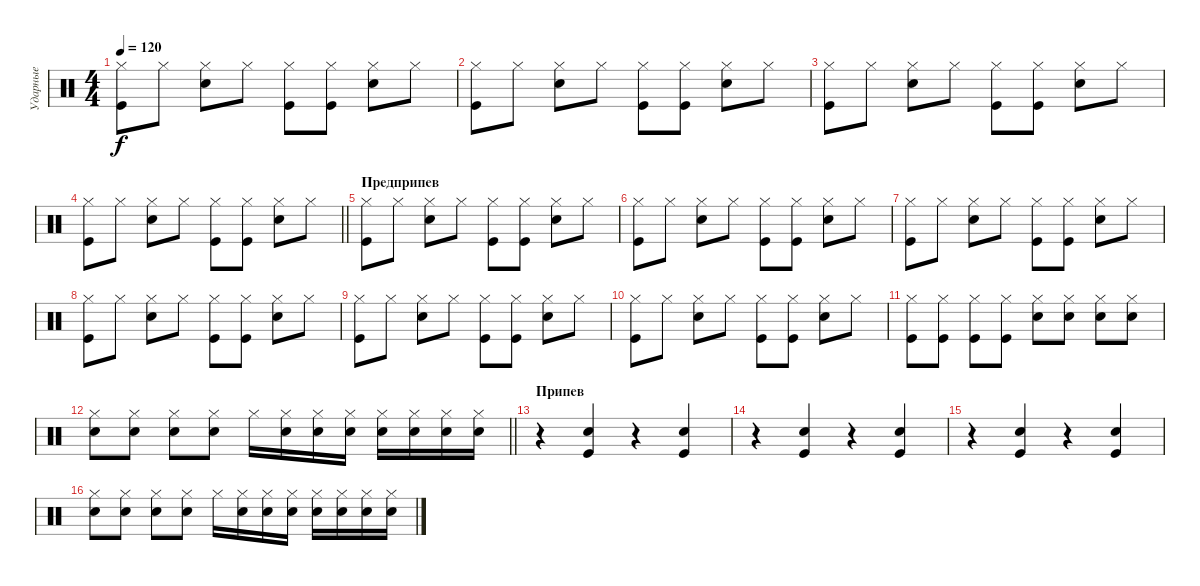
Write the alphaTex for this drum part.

\track ("Ударные" "Ударные") {instrument percussion}
\staff {score}
\articulation defaults
\ts (4 4)
\tempo 120
\clef neutral
\ks c
("Hi-Hat (closed)" "Kick (hit)").8{dy f} "Hi-Hat (closed)".8 ("Hi-Hat (closed)" "Snare (hit) 2").8 "Hi-Hat (closed)".8 ("Hi-Hat (closed)" "Kick (hit)").8 ("Hi-Hat (closed)" "Kick (hit)").8 ("Hi-Hat (closed)" "Snare (hit) 2").8 "Hi-Hat (closed)".8 |
("Hi-Hat (closed)" "Kick (hit)").8 "Hi-Hat (closed)".8 ("Hi-Hat (closed)" "Snare (hit) 2").8 "Hi-Hat (closed)".8 ("Hi-Hat (closed)" "Kick (hit)").8 ("Hi-Hat (closed)" "Kick (hit)").8 ("Hi-Hat (closed)" "Snare (hit) 2").8 "Hi-Hat (closed)".8 |
("Hi-Hat (closed)" "Kick (hit)").8 "Hi-Hat (closed)".8 ("Hi-Hat (closed)" "Snare (hit) 2").8 "Hi-Hat (closed)".8 ("Hi-Hat (closed)" "Kick (hit)").8 ("Hi-Hat (closed)" "Kick (hit)").8 ("Hi-Hat (closed)" "Snare (hit) 2").8 "Hi-Hat (closed)".8 |
\barLineRight lightlight
("Hi-Hat (closed)" "Kick (hit)").8 "Hi-Hat (closed)".8 ("Hi-Hat (closed)" "Snare (hit) 2").8 "Hi-Hat (closed)".8 ("Hi-Hat (closed)" "Kick (hit)").8 ("Hi-Hat (closed)" "Kick (hit)").8 ("Hi-Hat (closed)" "Snare (hit) 2").8 "Hi-Hat (closed)".8 |
\section ("" "Предприпев")
("Hi-Hat (closed)" "Kick (hit)").8 "Hi-Hat (closed)".8 ("Hi-Hat (closed)" "Snare (hit) 2").8 "Hi-Hat (closed)".8 ("Hi-Hat (closed)" "Kick (hit)").8 ("Hi-Hat (closed)" "Kick (hit)").8 ("Hi-Hat (closed)" "Snare (hit) 2").8 "Hi-Hat (closed)".8 |
("Hi-Hat (closed)" "Kick (hit)").8 "Hi-Hat (closed)".8 ("Hi-Hat (closed)" "Snare (hit) 2").8 "Hi-Hat (closed)".8 ("Hi-Hat (closed)" "Kick (hit)").8 ("Hi-Hat (closed)" "Kick (hit)").8 ("Hi-Hat (closed)" "Snare (hit) 2").8 "Hi-Hat (closed)".8 |
("Hi-Hat (closed)" "Kick (hit)").8 "Hi-Hat (closed)".8 ("Hi-Hat (closed)" "Snare (hit) 2").8 "Hi-Hat (closed)".8 ("Hi-Hat (closed)" "Kick (hit)").8 ("Hi-Hat (closed)" "Kick (hit)").8 ("Hi-Hat (closed)" "Snare (hit) 2").8 "Hi-Hat (closed)".8 |
("Hi-Hat (closed)" "Kick (hit)").8 "Hi-Hat (closed)".8 ("Hi-Hat (closed)" "Snare (hit) 2").8 "Hi-Hat (closed)".8 ("Hi-Hat (closed)" "Kick (hit)").8 ("Hi-Hat (closed)" "Kick (hit)").8 ("Hi-Hat (closed)" "Snare (hit) 2").8 "Hi-Hat (closed)".8 |
("Hi-Hat (closed)" "Kick (hit)").8 "Hi-Hat (closed)".8 ("Hi-Hat (closed)" "Snare (hit) 2").8 "Hi-Hat (closed)".8 ("Hi-Hat (closed)" "Kick (hit)").8 ("Hi-Hat (closed)" "Kick (hit)").8 ("Hi-Hat (closed)" "Snare (hit) 2").8 "Hi-Hat (closed)".8 |
("Hi-Hat (closed)" "Kick (hit)").8 "Hi-Hat (closed)".8 ("Hi-Hat (closed)" "Snare (hit) 2").8 "Hi-Hat (closed)".8 ("Hi-Hat (closed)" "Kick (hit)").8 ("Hi-Hat (closed)" "Kick (hit)").8 ("Hi-Hat (closed)" "Snare (hit) 2").8 "Hi-Hat (closed)".8 |
("Hi-Hat (closed)" "Kick (hit)").8 ("Hi-Hat (closed)" "Kick (hit)").8 ("Hi-Hat (closed)" "Kick (hit)").8 ("Hi-Hat (closed)" "Kick (hit)").8 ("Hi-Hat (closed)" "Snare (hit) 2").8 ("Hi-Hat (closed)" "Snare (hit) 2").8 ("Hi-Hat (closed)" "Snare (hit) 2").8 ("Hi-Hat (closed)" "Snare (hit) 2").8 |
\barLineRight lightlight
("Hi-Hat (closed)" "Snare (hit) 2").8 ("Hi-Hat (closed)" "Snare (hit) 2").8 ("Hi-Hat (closed)" "Snare (hit) 2").8 ("Hi-Hat (closed)" "Snare (hit) 2").8 "Hi-Hat (closed)".16 ("Hi-Hat (closed)" "Snare (hit) 2").16 ("Hi-Hat (closed)" "Snare (hit) 2").16 ("Hi-Hat (closed)" "Snare (hit) 2").16 ("Hi-Hat (closed)" "Snare (hit) 2").16 ("Hi-Hat (closed)" "Snare (hit) 2").16 ("Hi-Hat (closed)" "Snare (hit) 2").16 ("Hi-Hat (closed)" "Snare (hit) 2").16 |
\section ("" "Припев")
r.4 ("Snare (hit) 2" "Kick (hit)").4 r.4 ("Snare (hit) 2" "Kick (hit)").4 |
r.4 ("Snare (hit) 2" "Kick (hit)").4 r.4 ("Snare (hit) 2" "Kick (hit)").4 |
r.4 ("Snare (hit) 2" "Kick (hit)").4 r.4 ("Snare (hit) 2" "Kick (hit)").4 |
("Hi-Hat (closed)" "Snare (hit) 2").8 ("Hi-Hat (closed)" "Snare (hit) 2").8 ("Hi-Hat (closed)" "Snare (hit) 2").8 ("Hi-Hat (closed)" "Snare (hit) 2").8 "Hi-Hat (closed)".16 ("Hi-Hat (closed)" "Snare (hit) 2").16 ("Hi-Hat (closed)" "Snare (hit) 2").16 ("Hi-Hat (closed)" "Snare (hit) 2").16 ("Hi-Hat (closed)" "Snare (hit) 2").16 ("Hi-Hat (closed)" "Snare (hit) 2").16 ("Hi-Hat (closed)" "Snare (hit) 2").16 ("Hi-Hat (closed)" "Snare (hit) 2").16
